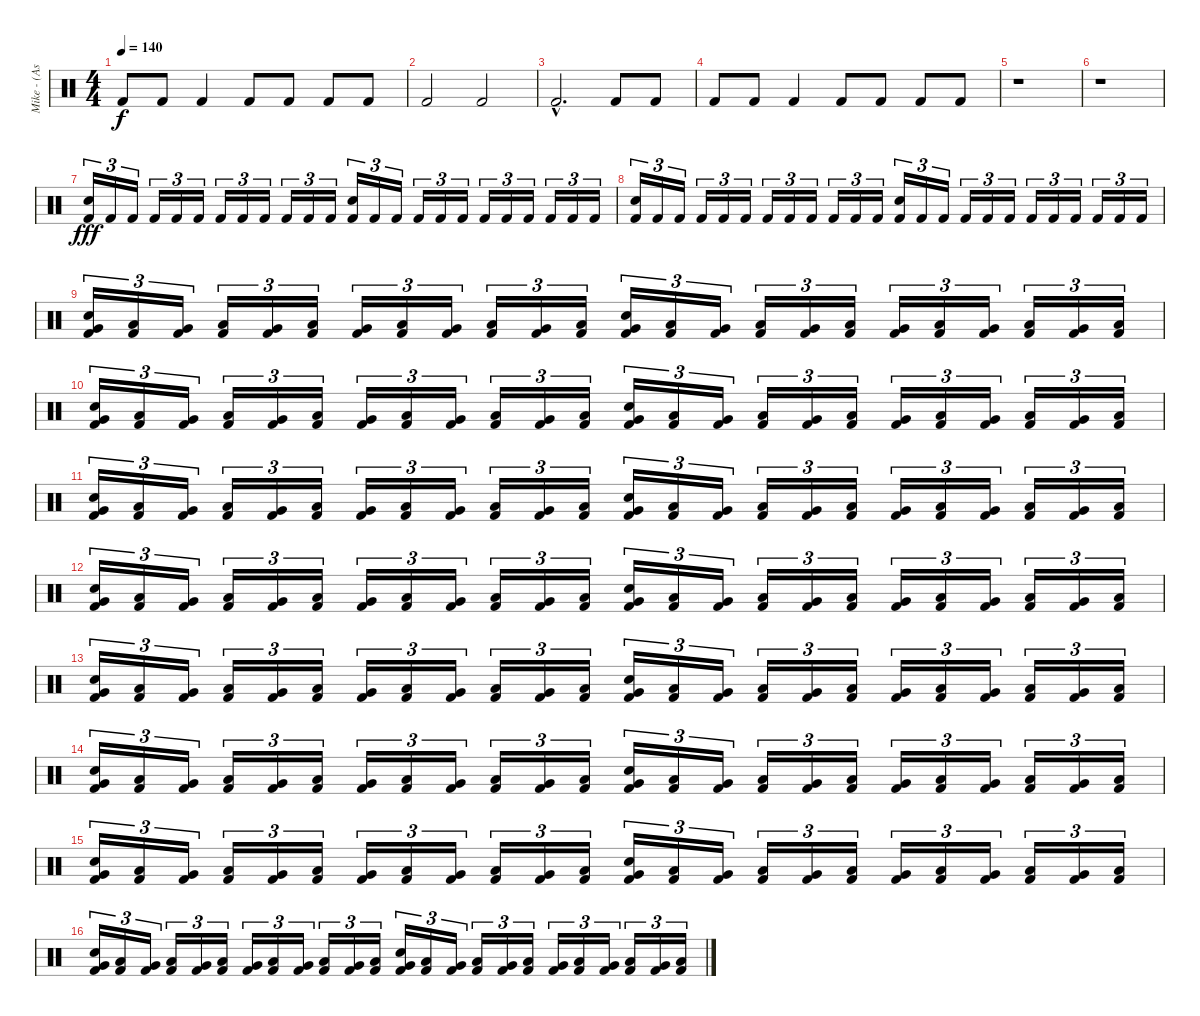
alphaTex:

\track ("Mike - (Assault and Battery)" "Mike - (As") {instrument percussion}
\staff {score}
\articulation defaults
\ts (4 4)
\tempo 140
\clef neutral
\ks c "Kick (hit) 2".8{dy f} "Kick (hit) 2".8 "Kick (hit) 2".4 "Kick (hit) 2".8 "Kick (hit) 2".8 "Kick (hit) 2".8 "Kick (hit) 2".8
|
"Kick (hit) 2".2 "Kick (hit) 2".2 |
"Kick (hit) 2"{hac}.2{d} "Kick (hit) 2".8 "Kick (hit) 2".8 |
"Kick (hit) 2".8 "Kick (hit) 2".8 "Kick (hit) 2".4 "Kick (hit) 2".8 "Kick (hit) 2".8 "Kick (hit) 2".8 "Kick (hit) 2".8 |
r.1 |
r.1 |
("Electric Snare (hit)" "Kick (hit) 2").16{tu (3 2) dy fff} "Kick (hit) 2".16{tu (3 2)} "Kick (hit) 2".16{tu (3 2)} "Kick (hit) 2".16{tu (3 2)} "Kick (hit) 2".16{tu (3 2)} "Kick (hit) 2".16{tu (3 2)} "Kick (hit) 2".16{tu (3 2)} "Kick (hit) 2".16{tu (3 2)} "Kick (hit) 2".16{tu (3 2)} "Kick (hit) 2".16{tu (3 2)} "Kick (hit) 2".16{tu (3 2)} "Kick (hit) 2".16{tu (3 2)} ("Electric Snare (hit)" "Kick (hit) 2").16{tu (3 2)} "Kick (hit) 2".16{tu (3 2)} "Kick (hit) 2".16{tu (3 2)} "Kick (hit) 2".16{tu (3 2)} "Kick (hit) 2".16{tu (3 2)} "Kick (hit) 2".16{tu (3 2)} "Kick (hit) 2".16{tu (3 2)} "Kick (hit) 2".16{tu (3 2)} "Kick (hit) 2".16{tu (3 2)} "Kick (hit) 2".16{tu (3 2)} "Kick (hit) 2".16{tu (3 2)} "Kick (hit) 2".16{tu (3 2)} |
("Electric Snare (hit)" "Kick (hit) 2").16{tu (3 2)} "Kick (hit) 2".16{tu (3 2)} "Kick (hit) 2".16{tu (3 2)} "Kick (hit) 2".16{tu (3 2)} "Kick (hit) 2".16{tu (3 2)} "Kick (hit) 2".16{tu (3 2)} "Kick (hit) 2".16{tu (3 2)} "Kick (hit) 2".16{tu (3 2)} "Kick (hit) 2".16{tu (3 2)} "Kick (hit) 2".16{tu (3 2)} "Kick (hit) 2".16{tu (3 2)} "Kick (hit) 2".16{tu (3 2)} ("Electric Snare (hit)" "Kick (hit) 2").16{tu (3 2)} "Kick (hit) 2".16{tu (3 2)} "Kick (hit) 2".16{tu (3 2)} "Kick (hit) 2".16{tu (3 2)} "Kick (hit) 2".16{tu (3 2)} "Kick (hit) 2".16{tu (3 2)} "Kick (hit) 2".16{tu (3 2)} "Kick (hit) 2".16{tu (3 2)} "Kick (hit) 2".16{tu (3 2)} "Kick (hit) 2".16{tu (3 2)} "Kick (hit) 2".16{tu (3 2)} "Kick (hit) 2".16{tu (3 2)} |
("Electric Snare (hit)" "Very Low Tom (hit)" "Kick (hit) 2").16{tu (3 2)} ("Low Floor Tom (hit)" "Kick (hit) 2").16{tu (3 2)} ("Very Low Tom (hit)" "Kick (hit) 2").16{tu (3 2)} ("Low Floor Tom (hit)" "Kick (hit) 2").16{tu (3 2)} ("Very Low Tom (hit)" "Kick (hit) 2").16{tu (3 2)} ("Low Floor Tom (hit)" "Kick (hit) 2").16{tu (3 2)} ("Very Low Tom (hit)" "Kick (hit) 2").16{tu (3 2)} ("Low Floor Tom (hit)" "Kick (hit) 2").16{tu (3 2)} ("Very Low Tom (hit)" "Kick (hit) 2").16{tu (3 2)} ("Low Floor Tom (hit)" "Kick (hit) 2").16{tu (3 2)} ("Very Low Tom (hit)" "Kick (hit) 2").16{tu (3 2)} ("Low Floor Tom (hit)" "Kick (hit) 2").16{tu (3 2)} ("Electric Snare (hit)" "Very Low Tom (hit)" "Kick (hit) 2").16{tu (3 2)} ("Low Floor Tom (hit)" "Kick (hit) 2").16{tu (3 2)} ("Very Low Tom (hit)" "Kick (hit) 2").16{tu (3 2)} ("Low Floor Tom (hit)" "Kick (hit) 2").16{tu (3 2)} ("Very Low Tom (hit)" "Kick (hit) 2").16{tu (3 2)} ("Low Floor Tom (hit)" "Kick (hit) 2").16{tu (3 2)} ("Very Low Tom (hit)" "Kick (hit) 2").16{tu (3 2)} ("Low Floor Tom (hit)" "Kick (hit) 2").16{tu (3 2)} ("Very Low Tom (hit)" "Kick (hit) 2").16{tu (3 2)} ("Low Floor Tom (hit)" "Kick (hit) 2").16{tu (3 2)} ("Very Low Tom (hit)" "Kick (hit) 2").16{tu (3 2)} ("Low Floor Tom (hit)" "Kick (hit) 2").16{tu (3 2)} |
("Electric Snare (hit)" "Very Low Tom (hit)" "Kick (hit) 2").16{tu (3 2)} ("Low Floor Tom (hit)" "Kick (hit) 2").16{tu (3 2)} ("Very Low Tom (hit)" "Kick (hit) 2").16{tu (3 2)} ("Low Floor Tom (hit)" "Kick (hit) 2").16{tu (3 2)} ("Very Low Tom (hit)" "Kick (hit) 2").16{tu (3 2)} ("Low Floor Tom (hit)" "Kick (hit) 2").16{tu (3 2)} ("Very Low Tom (hit)" "Kick (hit) 2").16{tu (3 2)} ("Low Floor Tom (hit)" "Kick (hit) 2").16{tu (3 2)} ("Very Low Tom (hit)" "Kick (hit) 2").16{tu (3 2)} ("Low Floor Tom (hit)" "Kick (hit) 2").16{tu (3 2)} ("Very Low Tom (hit)" "Kick (hit) 2").16{tu (3 2)} ("Low Floor Tom (hit)" "Kick (hit) 2").16{tu (3 2)} ("Electric Snare (hit)" "Very Low Tom (hit)" "Kick (hit) 2").16{tu (3 2)} ("Low Floor Tom (hit)" "Kick (hit) 2").16{tu (3 2)} ("Very Low Tom (hit)" "Kick (hit) 2").16{tu (3 2)} ("Low Floor Tom (hit)" "Kick (hit) 2").16{tu (3 2)} ("Very Low Tom (hit)" "Kick (hit) 2").16{tu (3 2)} ("Low Floor Tom (hit)" "Kick (hit) 2").16{tu (3 2)} ("Very Low Tom (hit)" "Kick (hit) 2").16{tu (3 2)} ("Low Floor Tom (hit)" "Kick (hit) 2").16{tu (3 2)} ("Very Low Tom (hit)" "Kick (hit) 2").16{tu (3 2)} ("Low Floor Tom (hit)" "Kick (hit) 2").16{tu (3 2)} ("Very Low Tom (hit)" "Kick (hit) 2").16{tu (3 2)} ("Low Floor Tom (hit)" "Kick (hit) 2").16{tu (3 2)} |
("Electric Snare (hit)" "Very Low Tom (hit)" "Kick (hit) 2").16{tu (3 2)} ("Low Floor Tom (hit)" "Kick (hit) 2").16{tu (3 2)} ("Very Low Tom (hit)" "Kick (hit) 2").16{tu (3 2)} ("Low Floor Tom (hit)" "Kick (hit) 2").16{tu (3 2)} ("Very Low Tom (hit)" "Kick (hit) 2").16{tu (3 2)} ("Low Floor Tom (hit)" "Kick (hit) 2").16{tu (3 2)} ("Very Low Tom (hit)" "Kick (hit) 2").16{tu (3 2)} ("Low Floor Tom (hit)" "Kick (hit) 2").16{tu (3 2)} ("Very Low Tom (hit)" "Kick (hit) 2").16{tu (3 2)} ("Low Floor Tom (hit)" "Kick (hit) 2").16{tu (3 2)} ("Very Low Tom (hit)" "Kick (hit) 2").16{tu (3 2)} ("Low Floor Tom (hit)" "Kick (hit) 2").16{tu (3 2)} ("Electric Snare (hit)" "Very Low Tom (hit)" "Kick (hit) 2").16{tu (3 2)} ("Low Floor Tom (hit)" "Kick (hit) 2").16{tu (3 2)} ("Very Low Tom (hit)" "Kick (hit) 2").16{tu (3 2)} ("Low Floor Tom (hit)" "Kick (hit) 2").16{tu (3 2)} ("Very Low Tom (hit)" "Kick (hit) 2").16{tu (3 2)} ("Low Floor Tom (hit)" "Kick (hit) 2").16{tu (3 2)} ("Very Low Tom (hit)" "Kick (hit) 2").16{tu (3 2)} ("Low Floor Tom (hit)" "Kick (hit) 2").16{tu (3 2)} ("Very Low Tom (hit)" "Kick (hit) 2").16{tu (3 2)} ("Low Floor Tom (hit)" "Kick (hit) 2").16{tu (3 2)} ("Very Low Tom (hit)" "Kick (hit) 2").16{tu (3 2)} ("Low Floor Tom (hit)" "Kick (hit) 2").16{tu (3 2)} |
("Electric Snare (hit)" "Very Low Tom (hit)" "Kick (hit) 2").16{tu (3 2)} ("Low Floor Tom (hit)" "Kick (hit) 2").16{tu (3 2)} ("Very Low Tom (hit)" "Kick (hit) 2").16{tu (3 2)} ("Low Floor Tom (hit)" "Kick (hit) 2").16{tu (3 2)} ("Very Low Tom (hit)" "Kick (hit) 2").16{tu (3 2)} ("Low Floor Tom (hit)" "Kick (hit) 2").16{tu (3 2)} ("Very Low Tom (hit)" "Kick (hit) 2").16{tu (3 2)} ("Low Floor Tom (hit)" "Kick (hit) 2").16{tu (3 2)} ("Very Low Tom (hit)" "Kick (hit) 2").16{tu (3 2)} ("Low Floor Tom (hit)" "Kick (hit) 2").16{tu (3 2)} ("Very Low Tom (hit)" "Kick (hit) 2").16{tu (3 2)} ("Low Floor Tom (hit)" "Kick (hit) 2").16{tu (3 2)} ("Electric Snare (hit)" "Very Low Tom (hit)" "Kick (hit) 2").16{tu (3 2)} ("Low Floor Tom (hit)" "Kick (hit) 2").16{tu (3 2)} ("Very Low Tom (hit)" "Kick (hit) 2").16{tu (3 2)} ("Low Floor Tom (hit)" "Kick (hit) 2").16{tu (3 2)} ("Very Low Tom (hit)" "Kick (hit) 2").16{tu (3 2)} ("Low Floor Tom (hit)" "Kick (hit) 2").16{tu (3 2)} ("Very Low Tom (hit)" "Kick (hit) 2").16{tu (3 2)} ("Low Floor Tom (hit)" "Kick (hit) 2").16{tu (3 2)} ("Very Low Tom (hit)" "Kick (hit) 2").16{tu (3 2)} ("Low Floor Tom (hit)" "Kick (hit) 2").16{tu (3 2)} ("Very Low Tom (hit)" "Kick (hit) 2").16{tu (3 2)} ("Low Floor Tom (hit)" "Kick (hit) 2").16{tu (3 2)} |
("Electric Snare (hit)" "Very Low Tom (hit)" "Kick (hit) 2").16{tu (3 2)} ("Low Floor Tom (hit)" "Kick (hit) 2").16{tu (3 2)} ("Very Low Tom (hit)" "Kick (hit) 2").16{tu (3 2)} ("Low Floor Tom (hit)" "Kick (hit) 2").16{tu (3 2)} ("Very Low Tom (hit)" "Kick (hit) 2").16{tu (3 2)} ("Low Floor Tom (hit)" "Kick (hit) 2").16{tu (3 2)} ("Very Low Tom (hit)" "Kick (hit) 2").16{tu (3 2)} ("Low Floor Tom (hit)" "Kick (hit) 2").16{tu (3 2)} ("Very Low Tom (hit)" "Kick (hit) 2").16{tu (3 2)} ("Low Floor Tom (hit)" "Kick (hit) 2").16{tu (3 2)} ("Very Low Tom (hit)" "Kick (hit) 2").16{tu (3 2)} ("Low Floor Tom (hit)" "Kick (hit) 2").16{tu (3 2)} ("Electric Snare (hit)" "Very Low Tom (hit)" "Kick (hit) 2").16{tu (3 2)} ("Low Floor Tom (hit)" "Kick (hit) 2").16{tu (3 2)} ("Very Low Tom (hit)" "Kick (hit) 2").16{tu (3 2)} ("Low Floor Tom (hit)" "Kick (hit) 2").16{tu (3 2)} ("Very Low Tom (hit)" "Kick (hit) 2").16{tu (3 2)} ("Low Floor Tom (hit)" "Kick (hit) 2").16{tu (3 2)} ("Very Low Tom (hit)" "Kick (hit) 2").16{tu (3 2)} ("Low Floor Tom (hit)" "Kick (hit) 2").16{tu (3 2)} ("Very Low Tom (hit)" "Kick (hit) 2").16{tu (3 2)} ("Low Floor Tom (hit)" "Kick (hit) 2").16{tu (3 2)} ("Very Low Tom (hit)" "Kick (hit) 2").16{tu (3 2)} ("Low Floor Tom (hit)" "Kick (hit) 2").16{tu (3 2)} |
("Electric Snare (hit)" "Very Low Tom (hit)" "Kick (hit) 2").16{tu (3 2)} ("Low Floor Tom (hit)" "Kick (hit) 2").16{tu (3 2)} ("Very Low Tom (hit)" "Kick (hit) 2").16{tu (3 2)} ("Low Floor Tom (hit)" "Kick (hit) 2").16{tu (3 2)} ("Very Low Tom (hit)" "Kick (hit) 2").16{tu (3 2)} ("Low Floor Tom (hit)" "Kick (hit) 2").16{tu (3 2)} ("Very Low Tom (hit)" "Kick (hit) 2").16{tu (3 2)} ("Low Floor Tom (hit)" "Kick (hit) 2").16{tu (3 2)} ("Very Low Tom (hit)" "Kick (hit) 2").16{tu (3 2)} ("Low Floor Tom (hit)" "Kick (hit) 2").16{tu (3 2)} ("Very Low Tom (hit)" "Kick (hit) 2").16{tu (3 2)} ("Low Floor Tom (hit)" "Kick (hit) 2").16{tu (3 2)} ("Electric Snare (hit)" "Very Low Tom (hit)" "Kick (hit) 2").16{tu (3 2)} ("Low Floor Tom (hit)" "Kick (hit) 2").16{tu (3 2)} ("Very Low Tom (hit)" "Kick (hit) 2").16{tu (3 2)} ("Low Floor Tom (hit)" "Kick (hit) 2").16{tu (3 2)} ("Very Low Tom (hit)" "Kick (hit) 2").16{tu (3 2)} ("Low Floor Tom (hit)" "Kick (hit) 2").16{tu (3 2)} ("Very Low Tom (hit)" "Kick (hit) 2").16{tu (3 2)} ("Low Floor Tom (hit)" "Kick (hit) 2").16{tu (3 2)} ("Very Low Tom (hit)" "Kick (hit) 2").16{tu (3 2)} ("Low Floor Tom (hit)" "Kick (hit) 2").16{tu (3 2)} ("Very Low Tom (hit)" "Kick (hit) 2").16{tu (3 2)} ("Low Floor Tom (hit)" "Kick (hit) 2").16{tu (3 2)} |
("Electric Snare (hit)" "Very Low Tom (hit)" "Kick (hit) 2").16{tu (3 2)} ("Low Floor Tom (hit)" "Kick (hit) 2").16{tu (3 2)} ("Very Low Tom (hit)" "Kick (hit) 2").16{tu (3 2)} ("Low Floor Tom (hit)" "Kick (hit) 2").16{tu (3 2)} ("Very Low Tom (hit)" "Kick (hit) 2").16{tu (3 2)} ("Low Floor Tom (hit)" "Kick (hit) 2").16{tu (3 2)} ("Very Low Tom (hit)" "Kick (hit) 2").16{tu (3 2)} ("Low Floor Tom (hit)" "Kick (hit) 2").16{tu (3 2)} ("Very Low Tom (hit)" "Kick (hit) 2").16{tu (3 2)} ("Low Floor Tom (hit)" "Kick (hit) 2").16{tu (3 2)} ("Very Low Tom (hit)" "Kick (hit) 2").16{tu (3 2)} ("Low Floor Tom (hit)" "Kick (hit) 2").16{tu (3 2)} ("Electric Snare (hit)" "Very Low Tom (hit)" "Kick (hit) 2").16{tu (3 2)} ("Low Floor Tom (hit)" "Kick (hit) 2").16{tu (3 2)} ("Very Low Tom (hit)" "Kick (hit) 2").16{tu (3 2)} ("Low Floor Tom (hit)" "Kick (hit) 2").16{tu (3 2)} ("Very Low Tom (hit)" "Kick (hit) 2").16{tu (3 2)} ("Low Floor Tom (hit)" "Kick (hit) 2").16{tu (3 2)} ("Very Low Tom (hit)" "Kick (hit) 2").16{tu (3 2)} ("Low Floor Tom (hit)" "Kick (hit) 2").16{tu (3 2)} ("Very Low Tom (hit)" "Kick (hit) 2").16{tu (3 2)} ("Low Floor Tom (hit)" "Kick (hit) 2").16{tu (3 2)} ("Very Low Tom (hit)" "Kick (hit) 2").16{tu (3 2)} ("Low Floor Tom (hit)" "Kick (hit) 2").16{tu (3 2)} |
("Electric Snare (hit)" "Very Low Tom (hit)" "Kick (hit) 2").16{tu (3 2)} ("Low Floor Tom (hit)" "Kick (hit) 2").16{tu (3 2)} ("Very Low Tom (hit)" "Kick (hit) 2").16{tu (3 2)} ("Low Floor Tom (hit)" "Kick (hit) 2").16{tu (3 2)} ("Very Low Tom (hit)" "Kick (hit) 2").16{tu (3 2)} ("Low Floor Tom (hit)" "Kick (hit) 2").16{tu (3 2)} ("Very Low Tom (hit)" "Kick (hit) 2").16{tu (3 2)} ("Low Floor Tom (hit)" "Kick (hit) 2").16{tu (3 2)} ("Very Low Tom (hit)" "Kick (hit) 2").16{tu (3 2)} ("Low Floor Tom (hit)" "Kick (hit) 2").16{tu (3 2)} ("Very Low Tom (hit)" "Kick (hit) 2").16{tu (3 2)} ("Low Floor Tom (hit)" "Kick (hit) 2").16{tu (3 2)} ("Electric Snare (hit)" "Very Low Tom (hit)" "Kick (hit) 2").16{tu (3 2)} ("Low Floor Tom (hit)" "Kick (hit) 2").16{tu (3 2)} ("Very Low Tom (hit)" "Kick (hit) 2").16{tu (3 2)} ("Low Floor Tom (hit)" "Kick (hit) 2").16{tu (3 2)} ("Very Low Tom (hit)" "Kick (hit) 2").16{tu (3 2)} ("Low Floor Tom (hit)" "Kick (hit) 2").16{tu (3 2)} ("Very Low Tom (hit)" "Kick (hit) 2").16{tu (3 2)} ("Low Floor Tom (hit)" "Kick (hit) 2").16{tu (3 2)} ("Very Low Tom (hit)" "Kick (hit) 2").16{tu (3 2)} ("Low Floor Tom (hit)" "Kick (hit) 2").16{tu (3 2)} ("Very Low Tom (hit)" "Kick (hit) 2").16{tu (3 2)} ("Low Floor Tom (hit)" "Kick (hit) 2").16{tu (3 2)}
